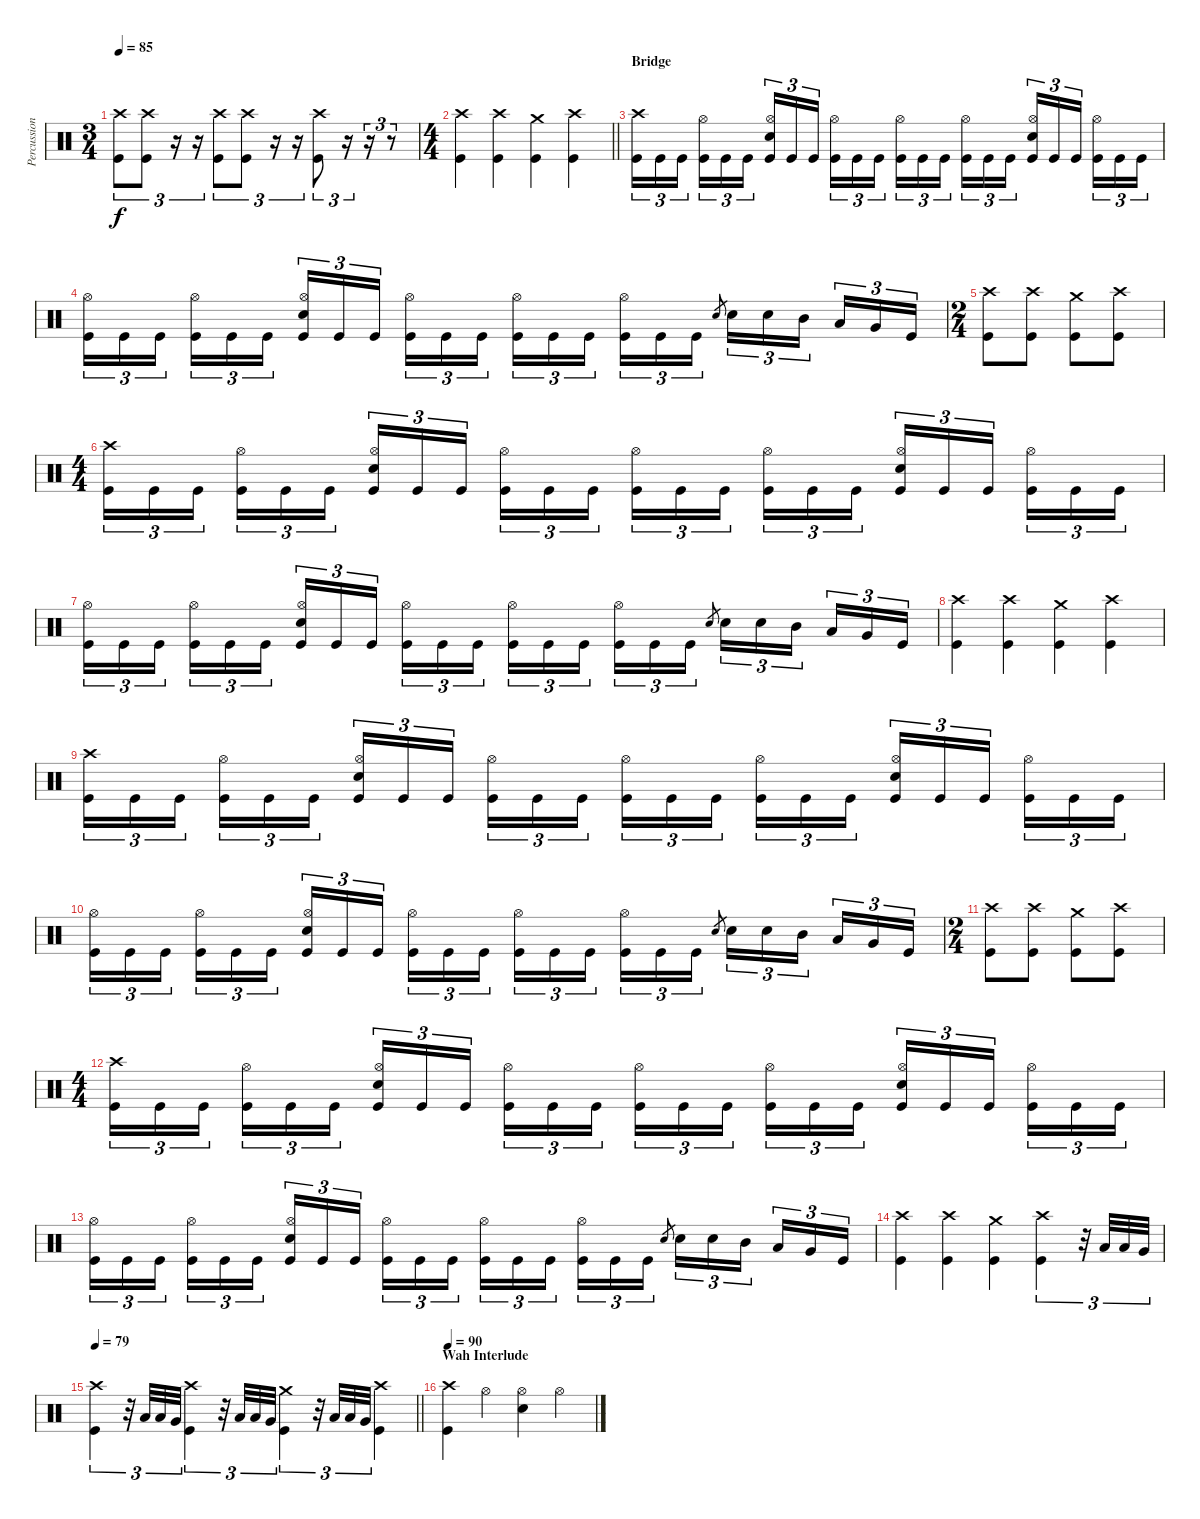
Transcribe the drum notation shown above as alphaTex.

\track ("Percussion" "Percussion") {instrument percussion}
\staff {score}
\articulation defaults
\ts (3 4)
\tempo 85
\clef neutral
\ks c
("Crash high (hit)" "Kick (hit)").8{tu (3 2) dy f volume 16} ("Crash high (hit)" "Kick (hit)").8{tu (3 2)} r.16{tu (3 2) volume 0} r.16{tu (3 2)} ("Crash high (hit)" "Kick (hit)").8{tu (3 2) volume 16} ("Crash high (hit)" "Kick (hit)").8{tu (3 2)} r.16{tu (3 2) volume 0} r.16{tu (3 2)} ("Crash high (hit)" "Kick (hit)").8{tu (3 2) volume 16} r.16{tu (3 2) volume 0} r.16{tu (3 2)} r.8{tu (3 2)} |
\ts (4 4)
\barLineRight lightlight
("Crash high (hit)" "Kick (hit)").4{volume 16} ("Crash high (hit)" "Kick (hit)").4 ("Crash medium (hit)" "Kick (hit)").4 ("Crash high (hit)" "Kick (hit)").4 |
\section ("" "Bridge")
("Crash high (hit)" "Kick (hit)").16{tu (3 2)} "Kick (hit)".16{tu (3 2)} "Kick (hit)".16{tu (3 2) beam splitsecondary} ("Hi-Hat (open)" "Kick (hit)").16{tu (3 2)} "Kick (hit)".16{tu (3 2)} "Kick (hit)".16{tu (3 2)} ("Hi-Hat (open)" "Electric Snare (hit)" "Kick (hit)").16{tu (3 2)} "Kick (hit)".16{tu (3 2)} "Kick (hit)".16{tu (3 2) beam splitsecondary} ("Hi-Hat (open)" "Kick (hit)").16{tu (3 2)} "Kick (hit)".16{tu (3 2)} "Kick (hit)".16{tu (3 2)} ("Hi-Hat (open)" "Kick (hit)").16{tu (3 2)} "Kick (hit)".16{tu (3 2)} "Kick (hit)".16{tu (3 2) beam splitsecondary} ("Hi-Hat (open)" "Kick (hit)").16{tu (3 2)} "Kick (hit)".16{tu (3 2)} "Kick (hit)".16{tu (3 2)} ("Hi-Hat (open)" "Electric Snare (hit)" "Kick (hit)").16{tu (3 2)} "Kick (hit)".16{tu (3 2)} "Kick (hit)".16{tu (3 2) beam splitsecondary} ("Hi-Hat (open)" "Kick (hit)").16{tu (3 2)} "Kick (hit)".16{tu (3 2)} "Kick (hit)".16{tu (3 2)} |
("Hi-Hat (open)" "Kick (hit)").16{tu (3 2)} "Kick (hit)".16{tu (3 2)} "Kick (hit)".16{tu (3 2) beam splitsecondary} ("Hi-Hat (open)" "Kick (hit)").16{tu (3 2)} "Kick (hit)".16{tu (3 2)} "Kick (hit)".16{tu (3 2)} ("Hi-Hat (open)" "Electric Snare (hit)" "Kick (hit)").16{tu (3 2)} "Kick (hit)".16{tu (3 2)} "Kick (hit)".16{tu (3 2) beam splitsecondary} ("Hi-Hat (open)" "Kick (hit)").16{tu (3 2)} "Kick (hit)".16{tu (3 2)} "Kick (hit)".16{tu (3 2)} ("Hi-Hat (open)" "Kick (hit)").16{tu (3 2)} "Kick (hit)".16{tu (3 2)} "Kick (hit)".16{tu (3 2) beam splitsecondary} ("Hi-Hat (open)" "Kick (hit)").16{tu (3 2)} "Kick (hit)".16{tu (3 2)} "Kick (hit)".16{tu (3 2)} "Electric Snare (hit)".8{gr} "Electric Snare (hit)".16{tu (3 2)} "Electric Snare (hit)".16{tu (3 2)} "Mid Tom (hit)".16{tu (3 2) beam splitsecondary} "Low Tom (hit)".16{tu (3 2)} "Very Low Tom (hit)".16{tu (3 2)} "Kick (hit)".16{tu (3 2)} |
\ts (2 4)
("Crash high (hit)" "Kick (hit)").8 ("Crash high (hit)" "Kick (hit)").8 ("Crash medium (hit)" "Kick (hit)").8 ("Crash high (hit)" "Kick (hit)").8 |
\ts (4 4)
("Crash high (hit)" "Kick (hit)").16{tu (3 2)} "Kick (hit)".16{tu (3 2)} "Kick (hit)".16{tu (3 2) beam splitsecondary} ("Hi-Hat (open)" "Kick (hit)").16{tu (3 2)} "Kick (hit)".16{tu (3 2)} "Kick (hit)".16{tu (3 2)} ("Hi-Hat (open)" "Electric Snare (hit)" "Kick (hit)").16{tu (3 2)} "Kick (hit)".16{tu (3 2)} "Kick (hit)".16{tu (3 2) beam splitsecondary} ("Hi-Hat (open)" "Kick (hit)").16{tu (3 2)} "Kick (hit)".16{tu (3 2)} "Kick (hit)".16{tu (3 2)} ("Hi-Hat (open)" "Kick (hit)").16{tu (3 2)} "Kick (hit)".16{tu (3 2)} "Kick (hit)".16{tu (3 2) beam splitsecondary} ("Hi-Hat (open)" "Kick (hit)").16{tu (3 2)} "Kick (hit)".16{tu (3 2)} "Kick (hit)".16{tu (3 2)} ("Hi-Hat (open)" "Electric Snare (hit)" "Kick (hit)").16{tu (3 2)} "Kick (hit)".16{tu (3 2)} "Kick (hit)".16{tu (3 2) beam splitsecondary} ("Hi-Hat (open)" "Kick (hit)").16{tu (3 2)} "Kick (hit)".16{tu (3 2)} "Kick (hit)".16{tu (3 2)} |
("Hi-Hat (open)" "Kick (hit)").16{tu (3 2)} "Kick (hit)".16{tu (3 2)} "Kick (hit)".16{tu (3 2) beam splitsecondary} ("Hi-Hat (open)" "Kick (hit)").16{tu (3 2)} "Kick (hit)".16{tu (3 2)} "Kick (hit)".16{tu (3 2)} ("Hi-Hat (open)" "Electric Snare (hit)" "Kick (hit)").16{tu (3 2)} "Kick (hit)".16{tu (3 2)} "Kick (hit)".16{tu (3 2) beam splitsecondary} ("Hi-Hat (open)" "Kick (hit)").16{tu (3 2)} "Kick (hit)".16{tu (3 2)} "Kick (hit)".16{tu (3 2)} ("Hi-Hat (open)" "Kick (hit)").16{tu (3 2)} "Kick (hit)".16{tu (3 2)} "Kick (hit)".16{tu (3 2) beam splitsecondary} ("Hi-Hat (open)" "Kick (hit)").16{tu (3 2)} "Kick (hit)".16{tu (3 2)} "Kick (hit)".16{tu (3 2)} "Electric Snare (hit)".8{gr} "Electric Snare (hit)".16{tu (3 2)} "Electric Snare (hit)".16{tu (3 2)} "Mid Tom (hit)".16{tu (3 2) beam splitsecondary} "Low Tom (hit)".16{tu (3 2)} "Very Low Tom (hit)".16{tu (3 2)} "Kick (hit)".16{tu (3 2)} |
("Crash high (hit)" "Kick (hit)").4 ("Crash high (hit)" "Kick (hit)").4 ("Crash medium (hit)" "Kick (hit)").4 ("Crash high (hit)" "Kick (hit)").4 |
("Crash high (hit)" "Kick (hit)").16{tu (3 2)} "Kick (hit)".16{tu (3 2)} "Kick (hit)".16{tu (3 2) beam splitsecondary} ("Hi-Hat (open)" "Kick (hit)").16{tu (3 2)} "Kick (hit)".16{tu (3 2)} "Kick (hit)".16{tu (3 2)} ("Hi-Hat (open)" "Electric Snare (hit)" "Kick (hit)").16{tu (3 2)} "Kick (hit)".16{tu (3 2)} "Kick (hit)".16{tu (3 2) beam splitsecondary} ("Hi-Hat (open)" "Kick (hit)").16{tu (3 2)} "Kick (hit)".16{tu (3 2)} "Kick (hit)".16{tu (3 2)} ("Hi-Hat (open)" "Kick (hit)").16{tu (3 2)} "Kick (hit)".16{tu (3 2)} "Kick (hit)".16{tu (3 2) beam splitsecondary} ("Hi-Hat (open)" "Kick (hit)").16{tu (3 2)} "Kick (hit)".16{tu (3 2)} "Kick (hit)".16{tu (3 2)} ("Hi-Hat (open)" "Electric Snare (hit)" "Kick (hit)").16{tu (3 2)} "Kick (hit)".16{tu (3 2)} "Kick (hit)".16{tu (3 2) beam splitsecondary} ("Hi-Hat (open)" "Kick (hit)").16{tu (3 2)} "Kick (hit)".16{tu (3 2)} "Kick (hit)".16{tu (3 2)} |
("Hi-Hat (open)" "Kick (hit)").16{tu (3 2)} "Kick (hit)".16{tu (3 2)} "Kick (hit)".16{tu (3 2) beam splitsecondary} ("Hi-Hat (open)" "Kick (hit)").16{tu (3 2)} "Kick (hit)".16{tu (3 2)} "Kick (hit)".16{tu (3 2)} ("Hi-Hat (open)" "Electric Snare (hit)" "Kick (hit)").16{tu (3 2)} "Kick (hit)".16{tu (3 2)} "Kick (hit)".16{tu (3 2) beam splitsecondary} ("Hi-Hat (open)" "Kick (hit)").16{tu (3 2)} "Kick (hit)".16{tu (3 2)} "Kick (hit)".16{tu (3 2)} ("Hi-Hat (open)" "Kick (hit)").16{tu (3 2)} "Kick (hit)".16{tu (3 2)} "Kick (hit)".16{tu (3 2) beam splitsecondary} ("Hi-Hat (open)" "Kick (hit)").16{tu (3 2)} "Kick (hit)".16{tu (3 2)} "Kick (hit)".16{tu (3 2)} "Electric Snare (hit)".8{gr} "Electric Snare (hit)".16{tu (3 2)} "Electric Snare (hit)".16{tu (3 2)} "Mid Tom (hit)".16{tu (3 2) beam splitsecondary} "Low Tom (hit)".16{tu (3 2)} "Very Low Tom (hit)".16{tu (3 2)} "Kick (hit)".16{tu (3 2)} |
\ts (2 4)
("Crash high (hit)" "Kick (hit)").8 ("Crash high (hit)" "Kick (hit)").8 ("Crash medium (hit)" "Kick (hit)").8 ("Crash high (hit)" "Kick (hit)").8 |
\ts (4 4)
("Crash high (hit)" "Kick (hit)").16{tu (3 2)} "Kick (hit)".16{tu (3 2)} "Kick (hit)".16{tu (3 2) beam splitsecondary} ("Hi-Hat (open)" "Kick (hit)").16{tu (3 2)} "Kick (hit)".16{tu (3 2)} "Kick (hit)".16{tu (3 2)} ("Hi-Hat (open)" "Electric Snare (hit)" "Kick (hit)").16{tu (3 2)} "Kick (hit)".16{tu (3 2)} "Kick (hit)".16{tu (3 2) beam splitsecondary} ("Hi-Hat (open)" "Kick (hit)").16{tu (3 2)} "Kick (hit)".16{tu (3 2)} "Kick (hit)".16{tu (3 2)} ("Hi-Hat (open)" "Kick (hit)").16{tu (3 2)} "Kick (hit)".16{tu (3 2)} "Kick (hit)".16{tu (3 2) beam splitsecondary} ("Hi-Hat (open)" "Kick (hit)").16{tu (3 2)} "Kick (hit)".16{tu (3 2)} "Kick (hit)".16{tu (3 2)} ("Hi-Hat (open)" "Electric Snare (hit)" "Kick (hit)").16{tu (3 2)} "Kick (hit)".16{tu (3 2)} "Kick (hit)".16{tu (3 2) beam splitsecondary} ("Hi-Hat (open)" "Kick (hit)").16{tu (3 2)} "Kick (hit)".16{tu (3 2)} "Kick (hit)".16{tu (3 2)} |
("Hi-Hat (open)" "Kick (hit)").16{tu (3 2)} "Kick (hit)".16{tu (3 2)} "Kick (hit)".16{tu (3 2) beam splitsecondary} ("Hi-Hat (open)" "Kick (hit)").16{tu (3 2)} "Kick (hit)".16{tu (3 2)} "Kick (hit)".16{tu (3 2)} ("Hi-Hat (open)" "Electric Snare (hit)" "Kick (hit)").16{tu (3 2)} "Kick (hit)".16{tu (3 2)} "Kick (hit)".16{tu (3 2) beam splitsecondary} ("Hi-Hat (open)" "Kick (hit)").16{tu (3 2)} "Kick (hit)".16{tu (3 2)} "Kick (hit)".16{tu (3 2)} ("Hi-Hat (open)" "Kick (hit)").16{tu (3 2)} "Kick (hit)".16{tu (3 2)} "Kick (hit)".16{tu (3 2) beam splitsecondary} ("Hi-Hat (open)" "Kick (hit)").16{tu (3 2)} "Kick (hit)".16{tu (3 2)} "Kick (hit)".16{tu (3 2)} "Electric Snare (hit)".8{gr} "Electric Snare (hit)".16{tu (3 2)} "Electric Snare (hit)".16{tu (3 2)} "Mid Tom (hit)".16{tu (3 2) beam splitsecondary} "Low Tom (hit)".16{tu (3 2)} "Very Low Tom (hit)".16{tu (3 2)} "Kick (hit)".16{tu (3 2)} |
("Crash high (hit)" "Kick (hit)").4 ("Crash high (hit)" "Kick (hit)").4 ("Crash medium (hit)" "Kick (hit)").4 ("Crash high (hit)" "Kick (hit)").4{tu (3 2)} r.32{tu (3 2)} "Low Tom (hit)".32{tu (3 2)} "Low Tom (hit)".32{tu (3 2)} "Very Low Tom (hit)".32{tu (3 2)} |
\tempo 79
\barLineRight lightlight
("Crash high (hit)" "Kick (hit)").4{tu (3 2)} r.32{tu (3 2)} "Low Tom (hit)".32{tu (3 2)} "Low Tom (hit)".32{tu (3 2)} "Very Low Tom (hit)".32{tu (3 2)} ("Crash high (hit)" "Kick (hit)").4{tu (3 2)} r.32{tu (3 2)} "Low Tom (hit)".32{tu (3 2)} "Low Tom (hit)".32{tu (3 2)} "Very Low Tom (hit)".32{tu (3 2)} ("Crash medium (hit)" "Kick (hit)").4{tu (3 2)} r.32{tu (3 2)} "Low Tom (hit)".32{tu (3 2)} "Low Tom (hit)".32{tu (3 2)} "Very Low Tom (hit)".32{tu (3 2)} ("Crash high (hit)" "Kick (hit)").4 |
\section ("" "Wah Interlude")
\tempo 90
("Crash high (hit)" "Kick (hit)").4 "Hi-Hat (open)".4 ("Hi-Hat (open)" "Electric Snare (hit)").4 "Hi-Hat (open)".4
